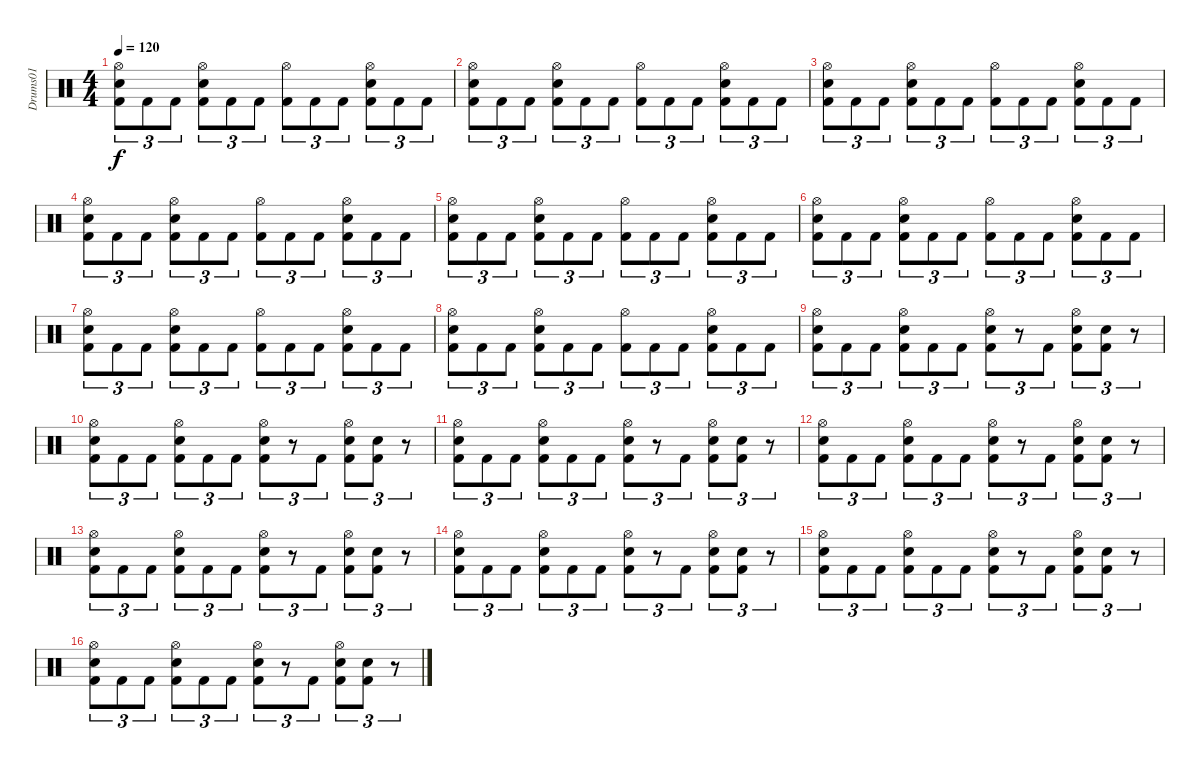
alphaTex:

\track ("Drums01" "Drums01") {instrument percussion}
\staff {score}
\articulation defaults
\ts (4 4)
\tempo 120
\clef neutral
\ks c
("Hi-Hat (open)" "Snare (hit) 2" "Kick (hit) 2").8{tu (3 2) dy f} "Kick (hit) 2".8{tu (3 2)} "Kick (hit) 2".8{tu (3 2)} ("Hi-Hat (open)" "Snare (hit) 2" "Kick (hit) 2").8{tu (3 2)} "Kick (hit) 2".8{tu (3 2)} "Kick (hit) 2".8{tu (3 2)} ("Hi-Hat (open)" "Kick (hit) 2").8{tu (3 2)} "Kick (hit) 2".8{tu (3 2)} "Kick (hit) 2".8{tu (3 2)} ("Hi-Hat (open)" "Snare (hit) 2" "Kick (hit) 2").8{tu (3 2)} "Kick (hit) 2".8{tu (3 2)} "Kick (hit) 2".8{tu (3 2)} |
("Hi-Hat (open)" "Snare (hit) 2" "Kick (hit) 2").8{tu (3 2)} "Kick (hit) 2".8{tu (3 2)} "Kick (hit) 2".8{tu (3 2)} ("Hi-Hat (open)" "Snare (hit) 2" "Kick (hit) 2").8{tu (3 2)} "Kick (hit) 2".8{tu (3 2)} "Kick (hit) 2".8{tu (3 2)} ("Hi-Hat (open)" "Kick (hit) 2").8{tu (3 2)} "Kick (hit) 2".8{tu (3 2)} "Kick (hit) 2".8{tu (3 2)} ("Hi-Hat (open)" "Snare (hit) 2" "Kick (hit) 2").8{tu (3 2)} "Kick (hit) 2".8{tu (3 2)} "Kick (hit) 2".8{tu (3 2)} |
("Hi-Hat (open)" "Snare (hit) 2" "Kick (hit) 2").8{tu (3 2)} "Kick (hit) 2".8{tu (3 2)} "Kick (hit) 2".8{tu (3 2)} ("Hi-Hat (open)" "Snare (hit) 2" "Kick (hit) 2").8{tu (3 2)} "Kick (hit) 2".8{tu (3 2)} "Kick (hit) 2".8{tu (3 2)} ("Hi-Hat (open)" "Kick (hit) 2").8{tu (3 2)} "Kick (hit) 2".8{tu (3 2)} "Kick (hit) 2".8{tu (3 2)} ("Hi-Hat (open)" "Snare (hit) 2" "Kick (hit) 2").8{tu (3 2)} "Kick (hit) 2".8{tu (3 2)} "Kick (hit) 2".8{tu (3 2)} |
("Hi-Hat (open)" "Snare (hit) 2" "Kick (hit) 2").8{tu (3 2)} "Kick (hit) 2".8{tu (3 2)} "Kick (hit) 2".8{tu (3 2)} ("Hi-Hat (open)" "Snare (hit) 2" "Kick (hit) 2").8{tu (3 2)} "Kick (hit) 2".8{tu (3 2)} "Kick (hit) 2".8{tu (3 2)} ("Hi-Hat (open)" "Kick (hit) 2").8{tu (3 2)} "Kick (hit) 2".8{tu (3 2)} "Kick (hit) 2".8{tu (3 2)} ("Hi-Hat (open)" "Snare (hit) 2" "Kick (hit) 2").8{tu (3 2)} "Kick (hit) 2".8{tu (3 2)} "Kick (hit) 2".8{tu (3 2)} |
("Hi-Hat (open)" "Snare (hit) 2" "Kick (hit) 2").8{tu (3 2)} "Kick (hit) 2".8{tu (3 2)} "Kick (hit) 2".8{tu (3 2)} ("Hi-Hat (open)" "Snare (hit) 2" "Kick (hit) 2").8{tu (3 2)} "Kick (hit) 2".8{tu (3 2)} "Kick (hit) 2".8{tu (3 2)} ("Hi-Hat (open)" "Kick (hit) 2").8{tu (3 2)} "Kick (hit) 2".8{tu (3 2)} "Kick (hit) 2".8{tu (3 2)} ("Hi-Hat (open)" "Snare (hit) 2" "Kick (hit) 2").8{tu (3 2)} "Kick (hit) 2".8{tu (3 2)} "Kick (hit) 2".8{tu (3 2)} |
("Hi-Hat (open)" "Snare (hit) 2" "Kick (hit) 2").8{tu (3 2)} "Kick (hit) 2".8{tu (3 2)} "Kick (hit) 2".8{tu (3 2)} ("Hi-Hat (open)" "Snare (hit) 2" "Kick (hit) 2").8{tu (3 2)} "Kick (hit) 2".8{tu (3 2)} "Kick (hit) 2".8{tu (3 2)} ("Hi-Hat (open)" "Kick (hit) 2").8{tu (3 2)} "Kick (hit) 2".8{tu (3 2)} "Kick (hit) 2".8{tu (3 2)} ("Hi-Hat (open)" "Snare (hit) 2" "Kick (hit) 2").8{tu (3 2)} "Kick (hit) 2".8{tu (3 2)} "Kick (hit) 2".8{tu (3 2)} |
("Hi-Hat (open)" "Snare (hit) 2" "Kick (hit) 2").8{tu (3 2)} "Kick (hit) 2".8{tu (3 2)} "Kick (hit) 2".8{tu (3 2)} ("Hi-Hat (open)" "Snare (hit) 2" "Kick (hit) 2").8{tu (3 2)} "Kick (hit) 2".8{tu (3 2)} "Kick (hit) 2".8{tu (3 2)} ("Hi-Hat (open)" "Kick (hit) 2").8{tu (3 2)} "Kick (hit) 2".8{tu (3 2)} "Kick (hit) 2".8{tu (3 2)} ("Hi-Hat (open)" "Snare (hit) 2" "Kick (hit) 2").8{tu (3 2)} "Kick (hit) 2".8{tu (3 2)} "Kick (hit) 2".8{tu (3 2)} |
("Hi-Hat (open)" "Snare (hit) 2" "Kick (hit) 2").8{tu (3 2)} "Kick (hit) 2".8{tu (3 2)} "Kick (hit) 2".8{tu (3 2)} ("Hi-Hat (open)" "Snare (hit) 2" "Kick (hit) 2").8{tu (3 2)} "Kick (hit) 2".8{tu (3 2)} "Kick (hit) 2".8{tu (3 2)} ("Hi-Hat (open)" "Kick (hit) 2").8{tu (3 2)} "Kick (hit) 2".8{tu (3 2)} "Kick (hit) 2".8{tu (3 2)} ("Hi-Hat (open)" "Snare (hit) 2" "Kick (hit) 2").8{tu (3 2)} "Kick (hit) 2".8{tu (3 2)} "Kick (hit) 2".8{tu (3 2)} |
("Hi-Hat (open)" "Snare (hit) 2" "Kick (hit) 2").8{tu (3 2)} "Kick (hit) 2".8{tu (3 2)} "Kick (hit) 2".8{tu (3 2)} ("Hi-Hat (open)" "Snare (hit) 2" "Kick (hit) 2").8{tu (3 2)} "Kick (hit) 2".8{tu (3 2)} "Kick (hit) 2".8{tu (3 2)} ("Hi-Hat (open)" "Snare (hit) 2" "Kick (hit) 2").8{tu (3 2)} r.8{tu (3 2)} "Kick (hit) 2".8{tu (3 2)} ("Hi-Hat (open)" "Snare (hit) 2" "Kick (hit) 2").8{tu (3 2)} ("Snare (hit) 2" "Kick (hit) 2").8{tu (3 2)} r.8{tu (3 2)} |
("Hi-Hat (open)" "Snare (hit) 2" "Kick (hit) 2").8{tu (3 2)} "Kick (hit) 2".8{tu (3 2)} "Kick (hit) 2".8{tu (3 2)} ("Hi-Hat (open)" "Snare (hit) 2" "Kick (hit) 2").8{tu (3 2)} "Kick (hit) 2".8{tu (3 2)} "Kick (hit) 2".8{tu (3 2)} ("Hi-Hat (open)" "Snare (hit) 2" "Kick (hit) 2").8{tu (3 2)} r.8{tu (3 2)} "Kick (hit) 2".8{tu (3 2)} ("Hi-Hat (open)" "Snare (hit) 2" "Kick (hit) 2").8{tu (3 2)} ("Snare (hit) 2" "Kick (hit) 2").8{tu (3 2)} r.8{tu (3 2)} |
("Hi-Hat (open)" "Snare (hit) 2" "Kick (hit) 2").8{tu (3 2)} "Kick (hit) 2".8{tu (3 2)} "Kick (hit) 2".8{tu (3 2)} ("Hi-Hat (open)" "Snare (hit) 2" "Kick (hit) 2").8{tu (3 2)} "Kick (hit) 2".8{tu (3 2)} "Kick (hit) 2".8{tu (3 2)} ("Hi-Hat (open)" "Snare (hit) 2" "Kick (hit) 2").8{tu (3 2)} r.8{tu (3 2)} "Kick (hit) 2".8{tu (3 2)} ("Hi-Hat (open)" "Snare (hit) 2" "Kick (hit) 2").8{tu (3 2)} ("Snare (hit) 2" "Kick (hit) 2").8{tu (3 2)} r.8{tu (3 2)} |
("Hi-Hat (open)" "Snare (hit) 2" "Kick (hit) 2").8{tu (3 2)} "Kick (hit) 2".8{tu (3 2)} "Kick (hit) 2".8{tu (3 2)} ("Hi-Hat (open)" "Snare (hit) 2" "Kick (hit) 2").8{tu (3 2)} "Kick (hit) 2".8{tu (3 2)} "Kick (hit) 2".8{tu (3 2)} ("Hi-Hat (open)" "Snare (hit) 2" "Kick (hit) 2").8{tu (3 2)} r.8{tu (3 2)} "Kick (hit) 2".8{tu (3 2)} ("Hi-Hat (open)" "Snare (hit) 2" "Kick (hit) 2").8{tu (3 2)} ("Snare (hit) 2" "Kick (hit) 2").8{tu (3 2)} r.8{tu (3 2)} |
("Hi-Hat (open)" "Snare (hit) 2" "Kick (hit) 2").8{tu (3 2)} "Kick (hit) 2".8{tu (3 2)} "Kick (hit) 2".8{tu (3 2)} ("Hi-Hat (open)" "Snare (hit) 2" "Kick (hit) 2").8{tu (3 2)} "Kick (hit) 2".8{tu (3 2)} "Kick (hit) 2".8{tu (3 2)} ("Hi-Hat (open)" "Snare (hit) 2" "Kick (hit) 2").8{tu (3 2)} r.8{tu (3 2)} "Kick (hit) 2".8{tu (3 2)} ("Hi-Hat (open)" "Snare (hit) 2" "Kick (hit) 2").8{tu (3 2)} ("Snare (hit) 2" "Kick (hit) 2").8{tu (3 2)} r.8{tu (3 2)} |
("Hi-Hat (open)" "Snare (hit) 2" "Kick (hit) 2").8{tu (3 2)} "Kick (hit) 2".8{tu (3 2)} "Kick (hit) 2".8{tu (3 2)} ("Hi-Hat (open)" "Snare (hit) 2" "Kick (hit) 2").8{tu (3 2)} "Kick (hit) 2".8{tu (3 2)} "Kick (hit) 2".8{tu (3 2)} ("Hi-Hat (open)" "Snare (hit) 2" "Kick (hit) 2").8{tu (3 2)} r.8{tu (3 2)} "Kick (hit) 2".8{tu (3 2)} ("Hi-Hat (open)" "Snare (hit) 2" "Kick (hit) 2").8{tu (3 2)} ("Snare (hit) 2" "Kick (hit) 2").8{tu (3 2)} r.8{tu (3 2)} |
("Hi-Hat (open)" "Snare (hit) 2" "Kick (hit) 2").8{tu (3 2)} "Kick (hit) 2".8{tu (3 2)} "Kick (hit) 2".8{tu (3 2)} ("Hi-Hat (open)" "Snare (hit) 2" "Kick (hit) 2").8{tu (3 2)} "Kick (hit) 2".8{tu (3 2)} "Kick (hit) 2".8{tu (3 2)} ("Hi-Hat (open)" "Snare (hit) 2" "Kick (hit) 2").8{tu (3 2)} r.8{tu (3 2)} "Kick (hit) 2".8{tu (3 2)} ("Hi-Hat (open)" "Snare (hit) 2" "Kick (hit) 2").8{tu (3 2)} ("Snare (hit) 2" "Kick (hit) 2").8{tu (3 2)} r.8{tu (3 2)} |
("Hi-Hat (open)" "Snare (hit) 2" "Kick (hit) 2").8{tu (3 2)} "Kick (hit) 2".8{tu (3 2)} "Kick (hit) 2".8{tu (3 2)} ("Hi-Hat (open)" "Snare (hit) 2" "Kick (hit) 2").8{tu (3 2)} "Kick (hit) 2".8{tu (3 2)} "Kick (hit) 2".8{tu (3 2)} ("Hi-Hat (open)" "Snare (hit) 2" "Kick (hit) 2").8{tu (3 2)} r.8{tu (3 2)} "Kick (hit) 2".8{tu (3 2)} ("Hi-Hat (open)" "Snare (hit) 2" "Kick (hit) 2").8{tu (3 2)} ("Snare (hit) 2" "Kick (hit) 2").8{tu (3 2)} r.8{tu (3 2)}
